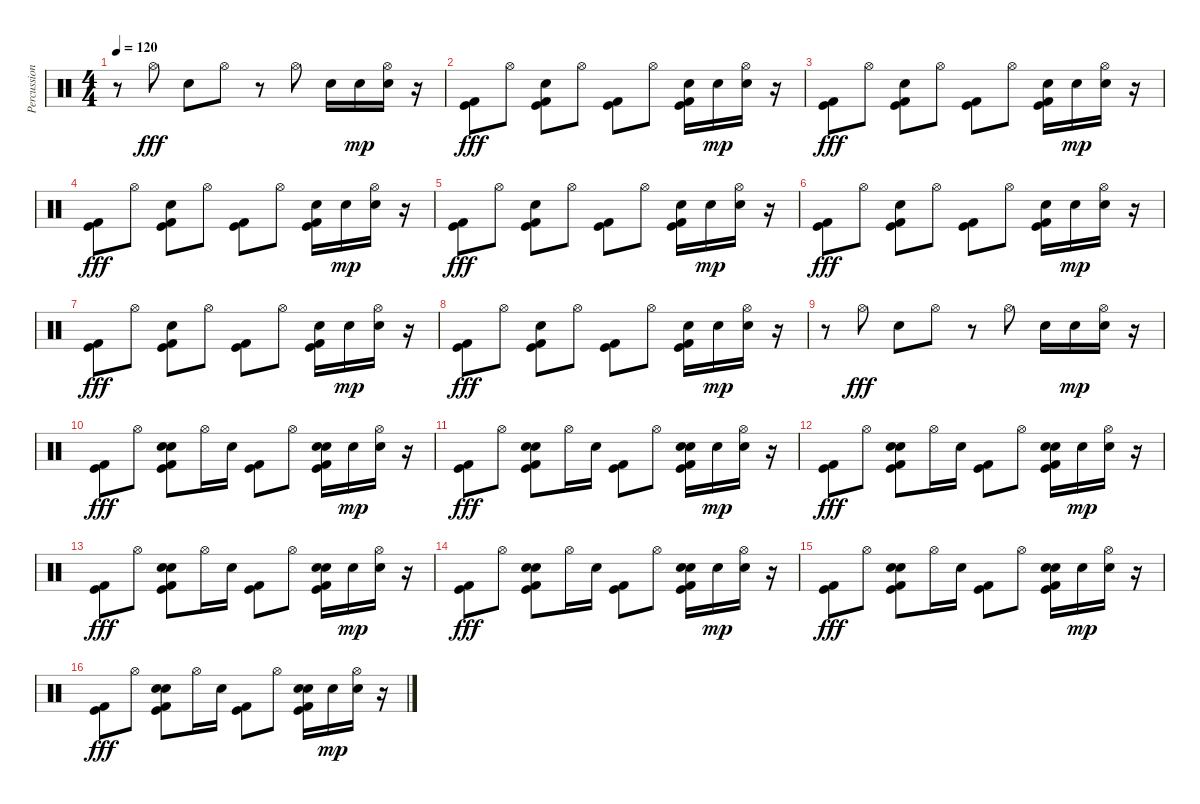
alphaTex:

\track ("Percussion" "Percussion") {instrument percussion}
\staff {score}
\articulation defaults
\ts (4 4)
\tempo 120
\clef neutral
\ks c
r.8{dy mp} "Hi-Hat (open)".8{dy fff} "Hand Clap (hit)".8 "Hi-Hat (open)".8 r.8 "Hi-Hat (open)".8 "Hand Clap (hit)".16 "Hand Clap (hit)".16{dy mp} ("Hi-Hat (open)" "Hand Clap (hit)").16 r.16 |
("Kick (hit) 2" "Kick (hit)").8{dy fff} "Hi-Hat (open)".8 ("Kick (hit) 2" "Kick (hit)" "Hand Clap (hit)").8 "Hi-Hat (open)".8 ("Kick (hit) 2" "Kick (hit)").8 "Hi-Hat (open)".8 ("Kick (hit) 2" "Kick (hit)" "Hand Clap (hit)").16 "Hand Clap (hit)".16{dy mp} ("Hi-Hat (open)" "Hand Clap (hit)").16 r.16 |
("Kick (hit) 2" "Kick (hit)").8{dy fff} "Hi-Hat (open)".8 ("Kick (hit) 2" "Kick (hit)" "Hand Clap (hit)").8 "Hi-Hat (open)".8 ("Kick (hit) 2" "Kick (hit)").8 "Hi-Hat (open)".8 ("Kick (hit) 2" "Kick (hit)" "Hand Clap (hit)").16 "Hand Clap (hit)".16{dy mp} ("Hi-Hat (open)" "Hand Clap (hit)").16 r.16 |
("Kick (hit) 2" "Kick (hit)").8{dy fff} "Hi-Hat (open)".8 ("Kick (hit) 2" "Kick (hit)" "Hand Clap (hit)").8 "Hi-Hat (open)".8 ("Kick (hit) 2" "Kick (hit)").8 "Hi-Hat (open)".8 ("Kick (hit) 2" "Kick (hit)" "Hand Clap (hit)").16 "Hand Clap (hit)".16{dy mp} ("Hi-Hat (open)" "Hand Clap (hit)").16 r.16 |
("Kick (hit) 2" "Kick (hit)").8{dy fff} "Hi-Hat (open)".8 ("Kick (hit) 2" "Kick (hit)" "Hand Clap (hit)").8 "Hi-Hat (open)".8 ("Kick (hit) 2" "Kick (hit)").8 "Hi-Hat (open)".8 ("Kick (hit) 2" "Kick (hit)" "Hand Clap (hit)").16 "Hand Clap (hit)".16{dy mp} ("Hi-Hat (open)" "Hand Clap (hit)").16 r.16 |
("Kick (hit) 2" "Kick (hit)").8{dy fff} "Hi-Hat (open)".8 ("Kick (hit) 2" "Kick (hit)" "Hand Clap (hit)").8 "Hi-Hat (open)".8 ("Kick (hit) 2" "Kick (hit)").8 "Hi-Hat (open)".8 ("Kick (hit) 2" "Kick (hit)" "Hand Clap (hit)").16 "Hand Clap (hit)".16{dy mp} ("Hi-Hat (open)" "Hand Clap (hit)").16 r.16 |
("Kick (hit) 2" "Kick (hit)").8{dy fff} "Hi-Hat (open)".8 ("Kick (hit) 2" "Kick (hit)" "Hand Clap (hit)").8 "Hi-Hat (open)".8 ("Kick (hit) 2" "Kick (hit)").8 "Hi-Hat (open)".8 ("Kick (hit) 2" "Kick (hit)" "Hand Clap (hit)").16 "Hand Clap (hit)".16{dy mp} ("Hi-Hat (open)" "Hand Clap (hit)").16 r.16 |
("Kick (hit) 2" "Kick (hit)").8{dy fff} "Hi-Hat (open)".8 ("Kick (hit) 2" "Kick (hit)" "Hand Clap (hit)").8 "Hi-Hat (open)".8 ("Kick (hit) 2" "Kick (hit)").8 "Hi-Hat (open)".8 ("Kick (hit) 2" "Kick (hit)" "Hand Clap (hit)").16 "Hand Clap (hit)".16{dy mp} ("Hi-Hat (open)" "Hand Clap (hit)").16 r.16 |
r.8 "Hi-Hat (open)".8{dy fff} "Hand Clap (hit)".8 "Hi-Hat (open)".8 r.8 "Hi-Hat (open)".8 "Hand Clap (hit)".16 "Hand Clap (hit)".16{dy mp} ("Hi-Hat (open)" "Hand Clap (hit)").16 r.16 |
("Kick (hit) 2" "Kick (hit)").8{dy fff} "Hi-Hat (open)".8 ("Kick (hit) 2" "Kick (hit)" "Hand Clap (hit)" "Electric Snare (hit)").8 "Hi-Hat (open)".16 "Electric Snare (hit)".16 ("Kick (hit) 2" "Kick (hit)").8 "Hi-Hat (open)".8 ("Kick (hit) 2" "Kick (hit)" "Hand Clap (hit)" "Electric Snare (hit)").16 "Electric Snare (hit)".16{dy mp} ("Hi-Hat (open)" "Electric Snare (hit)").16 r.16 |
("Kick (hit) 2" "Kick (hit)").8{dy fff} "Hi-Hat (open)".8 ("Kick (hit) 2" "Kick (hit)" "Hand Clap (hit)" "Electric Snare (hit)").8 "Hi-Hat (open)".16 "Electric Snare (hit)".16 ("Kick (hit) 2" "Kick (hit)").8 "Hi-Hat (open)".8 ("Kick (hit) 2" "Kick (hit)" "Hand Clap (hit)" "Electric Snare (hit)").16 "Electric Snare (hit)".16{dy mp} ("Hi-Hat (open)" "Electric Snare (hit)").16 r.16 |
("Kick (hit) 2" "Kick (hit)").8{dy fff} "Hi-Hat (open)".8 ("Kick (hit) 2" "Kick (hit)" "Hand Clap (hit)" "Electric Snare (hit)").8 "Hi-Hat (open)".16 "Electric Snare (hit)".16 ("Kick (hit) 2" "Kick (hit)").8 "Hi-Hat (open)".8 ("Kick (hit) 2" "Kick (hit)" "Hand Clap (hit)" "Electric Snare (hit)").16 "Electric Snare (hit)".16{dy mp} ("Hi-Hat (open)" "Electric Snare (hit)").16 r.16 |
("Kick (hit) 2" "Kick (hit)").8{dy fff} "Hi-Hat (open)".8 ("Kick (hit) 2" "Kick (hit)" "Hand Clap (hit)" "Electric Snare (hit)").8 "Hi-Hat (open)".16 "Electric Snare (hit)".16 ("Kick (hit) 2" "Kick (hit)").8 "Hi-Hat (open)".8 ("Kick (hit) 2" "Kick (hit)" "Hand Clap (hit)" "Electric Snare (hit)").16 "Electric Snare (hit)".16{dy mp} ("Hi-Hat (open)" "Electric Snare (hit)").16 r.16 |
("Kick (hit) 2" "Kick (hit)").8{dy fff} "Hi-Hat (open)".8 ("Kick (hit) 2" "Kick (hit)" "Hand Clap (hit)" "Electric Snare (hit)").8 "Hi-Hat (open)".16 "Electric Snare (hit)".16 ("Kick (hit) 2" "Kick (hit)").8 "Hi-Hat (open)".8 ("Kick (hit) 2" "Kick (hit)" "Hand Clap (hit)" "Electric Snare (hit)").16 "Electric Snare (hit)".16{dy mp} ("Hi-Hat (open)" "Electric Snare (hit)").16 r.16 |
("Kick (hit) 2" "Kick (hit)").8{dy fff} "Hi-Hat (open)".8 ("Kick (hit) 2" "Kick (hit)" "Hand Clap (hit)" "Electric Snare (hit)").8 "Hi-Hat (open)".16 "Electric Snare (hit)".16 ("Kick (hit) 2" "Kick (hit)").8 "Hi-Hat (open)".8 ("Kick (hit) 2" "Kick (hit)" "Hand Clap (hit)" "Electric Snare (hit)").16 "Electric Snare (hit)".16{dy mp} ("Hi-Hat (open)" "Electric Snare (hit)").16 r.16 |
("Kick (hit) 2" "Kick (hit)").8{dy fff} "Hi-Hat (open)".8 ("Kick (hit) 2" "Kick (hit)" "Hand Clap (hit)" "Electric Snare (hit)").8 "Hi-Hat (open)".16 "Electric Snare (hit)".16 ("Kick (hit) 2" "Kick (hit)").8 "Hi-Hat (open)".8 ("Kick (hit) 2" "Kick (hit)" "Hand Clap (hit)" "Electric Snare (hit)").16 "Electric Snare (hit)".16{dy mp} ("Hi-Hat (open)" "Electric Snare (hit)").16 r.16
